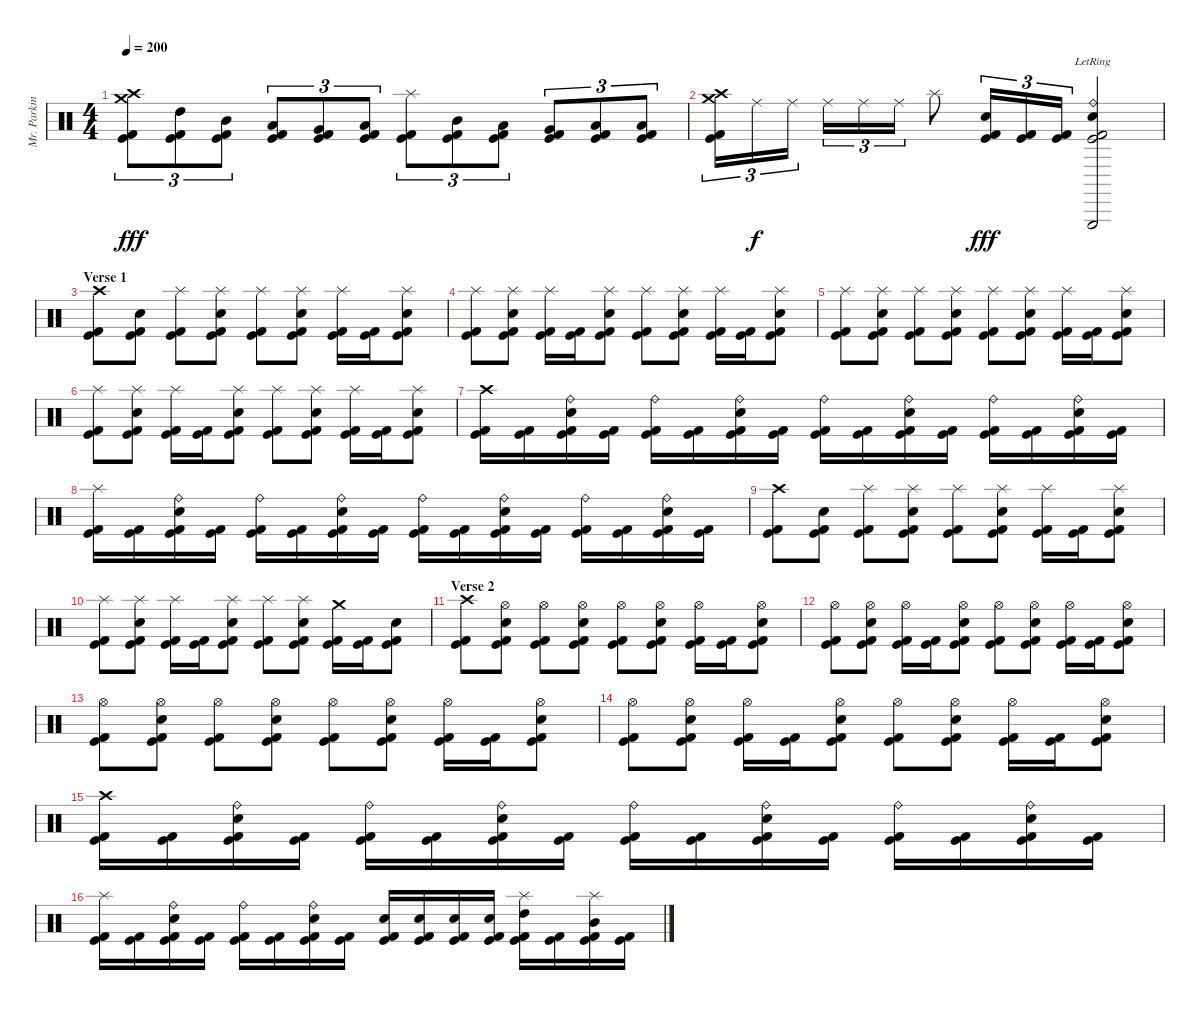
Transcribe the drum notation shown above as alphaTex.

\track ("Mr. Parkinson" "Mr. Parkin") {instrument percussion}
\staff {score}
\articulation defaults
\ts (4 4)
\tempo 200
\clef neutral
\ks c
("Crash high (hit)" "Crash medium (hit)" "Kick (hit)" "Kick (hit) 2").8{tu (3 2) dy fff} ("High Tom (hit)" "Kick (hit)" "Kick (hit) 2").8{tu (3 2)} ("Mid Tom (hit)" "Kick (hit)" "Kick (hit) 2").8{tu (3 2)} ("Low Tom (hit)" "Kick (hit)" "Kick (hit) 2").8{tu (3 2)} ("Very Low Tom (hit)" "Kick (hit)" "Kick (hit) 2").8{tu (3 2)} ("Low Floor Tom (hit)" "Kick (hit)" "Kick (hit) 2").8{tu (3 2)} ("Splash (hit)" "Kick (hit)" "Kick (hit) 2").8{tu (3 2)} ("Mid Tom (hit)" "Kick (hit)" "Kick (hit) 2").8{tu (3 2)} ("Low Tom (hit)" "Kick (hit)" "Kick (hit) 2").8{tu (3 2)} ("Very Low Tom (hit)" "Kick (hit)" "Kick (hit) 2").8{tu (3 2)} ("Low Floor Tom (hit)" "Kick (hit)" "Kick (hit) 2").8{tu (3 2)} ("Low Floor Tom (hit)" "Kick (hit)" "Kick (hit) 2").8{tu (3 2)} |
("Crash high (hit)" "Crash medium (hit)" "Kick (hit)" "Kick (hit) 2").16{tu (3 2)} "Ride (middle)".16{tu (3 2) dy f} "Ride (middle)".16{tu (3 2)} "Ride (middle)".16{tu (3 2)} "Ride (middle)".16{tu (3 2)} "Ride (middle)".16{tu (3 2)} "Splash (hit)".8 ("Snare (hit)" "Kick (hit)" "Kick (hit) 2").16{tu (3 2) dy fff} ("Kick (hit)" "Kick (hit) 2").16{tu (3 2)} ("Kick (hit)" "Kick (hit) 2").16{tu (3 2)} ("Ride (bell)"{lr} "Metronome (bell)"{lr} "Triangle (hit)"{lr} "Kick (hit)" "Kick (hit) 2").2 |
\section ("" "Verse 1")
("Crash high (hit)" "Kick (hit)" "Kick (hit) 2").8 ("Electric Snare (hit)" "Kick (hit)" "Kick (hit) 2").8 ("Splash (hit)" "Kick (hit)" "Kick (hit) 2").8 ("Splash (hit)" "Electric Snare (hit)" "Kick (hit)" "Kick (hit) 2").8 ("Splash (hit)" "Kick (hit)" "Kick (hit) 2").8 ("Splash (hit)" "Electric Snare (hit)" "Kick (hit)" "Kick (hit) 2").8 ("Splash (hit)" "Kick (hit)" "Kick (hit) 2").16 ("Kick (hit)" "Kick (hit) 2").16 ("Splash (hit)" "Electric Snare (hit)" "Kick (hit)" "Kick (hit) 2").8 |
("Splash (hit)" "Kick (hit)" "Kick (hit) 2").8 ("Splash (hit)" "Electric Snare (hit)" "Kick (hit)" "Kick (hit) 2").8 ("Splash (hit)" "Kick (hit)" "Kick (hit) 2").16 ("Kick (hit)" "Kick (hit) 2").16 ("Splash (hit)" "Electric Snare (hit)" "Kick (hit)" "Kick (hit) 2").8 ("Splash (hit)" "Kick (hit)" "Kick (hit) 2").8 ("Splash (hit)" "Electric Snare (hit)" "Kick (hit)" "Kick (hit) 2").8 ("Splash (hit)" "Kick (hit)" "Kick (hit) 2").16 ("Kick (hit)" "Kick (hit) 2").16 ("Splash (hit)" "Electric Snare (hit)" "Kick (hit)" "Kick (hit) 2").8 |
("Splash (hit)" "Kick (hit)" "Kick (hit) 2").8 ("Splash (hit)" "Electric Snare (hit)" "Kick (hit)" "Kick (hit) 2").8 ("Splash (hit)" "Kick (hit)" "Kick (hit) 2").8 ("Splash (hit)" "Electric Snare (hit)" "Kick (hit)" "Kick (hit) 2").8 ("Splash (hit)" "Kick (hit)" "Kick (hit) 2").8 ("Splash (hit)" "Electric Snare (hit)" "Kick (hit)" "Kick (hit) 2").8 ("Splash (hit)" "Kick (hit)" "Kick (hit) 2").16 ("Kick (hit)" "Kick (hit) 2").16 ("Splash (hit)" "Electric Snare (hit)" "Kick (hit)" "Kick (hit) 2").8 |
("Splash (hit)" "Kick (hit)" "Kick (hit) 2").8 ("Splash (hit)" "Electric Snare (hit)" "Kick (hit)" "Kick (hit) 2").8 ("Splash (hit)" "Kick (hit)" "Kick (hit) 2").16 ("Kick (hit)" "Kick (hit) 2").16 ("Splash (hit)" "Electric Snare (hit)" "Kick (hit)" "Kick (hit) 2").8 ("Splash (hit)" "Kick (hit)" "Kick (hit) 2").8 ("Splash (hit)" "Electric Snare (hit)" "Kick (hit)" "Kick (hit) 2").8 ("Splash (hit)" "Kick (hit)" "Kick (hit) 2").16 ("Kick (hit)" "Kick (hit) 2").16 ("Splash (hit)" "Electric Snare (hit)" "Kick (hit)" "Kick (hit) 2").8 |
("Crash high (hit)" "Kick (hit)" "Kick (hit) 2").16 ("Kick (hit)" "Kick (hit) 2").16 ("Ride (bell)" "Electric Snare (hit)" "Kick (hit)" "Kick (hit) 2").16 ("Kick (hit)" "Kick (hit) 2").16 ("Ride (bell)" "Kick (hit)" "Kick (hit) 2").16 ("Kick (hit)" "Kick (hit) 2").16 ("Ride (bell)" "Electric Snare (hit)" "Kick (hit)" "Kick (hit) 2").16 ("Kick (hit)" "Kick (hit) 2").16 ("Ride (bell)" "Kick (hit)" "Kick (hit) 2").16 ("Kick (hit)" "Kick (hit) 2").16 ("Ride (bell)" "Electric Snare (hit)" "Kick (hit)" "Kick (hit) 2").16 ("Kick (hit)" "Kick (hit) 2").16 ("Ride (bell)" "Kick (hit)" "Kick (hit) 2").16 ("Kick (hit)" "Kick (hit) 2").16 ("Ride (bell)" "Electric Snare (hit)" "Kick (hit)" "Kick (hit) 2").16 ("Kick (hit)" "Kick (hit) 2").16 |
("Splash (hit)" "Kick (hit)" "Kick (hit) 2").16 ("Kick (hit)" "Kick (hit) 2").16 ("Ride (bell)" "Electric Snare (hit)" "Kick (hit)" "Kick (hit) 2").16 ("Kick (hit)" "Kick (hit) 2").16 ("Ride (bell)" "Kick (hit)" "Kick (hit) 2").16 ("Kick (hit)" "Kick (hit) 2").16 ("Ride (bell)" "Electric Snare (hit)" "Kick (hit)" "Kick (hit) 2").16 ("Kick (hit)" "Kick (hit) 2").16 ("Ride (bell)" "Kick (hit)" "Kick (hit) 2").16 ("Kick (hit)" "Kick (hit) 2").16 ("Ride (bell)" "Electric Snare (hit)" "Kick (hit)" "Kick (hit) 2").16 ("Kick (hit)" "Kick (hit) 2").16 ("Ride (bell)" "Kick (hit)" "Kick (hit) 2").16 ("Kick (hit)" "Kick (hit) 2").16 ("Ride (bell)" "Electric Snare (hit)" "Kick (hit)" "Kick (hit) 2").16 ("Kick (hit)" "Kick (hit) 2").16 |
("Crash high (hit)" "Kick (hit)" "Kick (hit) 2").8 ("Electric Snare (hit)" "Kick (hit)" "Kick (hit) 2").8 ("Splash (hit)" "Kick (hit)" "Kick (hit) 2").8 ("Splash (hit)" "Electric Snare (hit)" "Kick (hit)" "Kick (hit) 2").8 ("Splash (hit)" "Kick (hit)" "Kick (hit) 2").8 ("Splash (hit)" "Electric Snare (hit)" "Kick (hit)" "Kick (hit) 2").8 ("Splash (hit)" "Kick (hit)" "Kick (hit) 2").16 ("Kick (hit)" "Kick (hit) 2").16 ("Splash (hit)" "Electric Snare (hit)" "Kick (hit)" "Kick (hit) 2").8 |
("Splash (hit)" "Kick (hit)" "Kick (hit) 2").8 ("Splash (hit)" "Electric Snare (hit)" "Kick (hit)" "Kick (hit) 2").8 ("Splash (hit)" "Kick (hit)" "Kick (hit) 2").16 ("Kick (hit)" "Kick (hit) 2").16 ("Splash (hit)" "Electric Snare (hit)" "Kick (hit)" "Kick (hit) 2").8 ("Splash (hit)" "Kick (hit)" "Kick (hit) 2").8 ("Splash (hit)" "Electric Snare (hit)" "Kick (hit)" "Kick (hit) 2").8 ("Crash medium (hit)" "Kick (hit)" "Kick (hit) 2").16 ("Kick (hit)" "Kick (hit) 2").16 ("Electric Snare (hit)" "Kick (hit)" "Kick (hit) 2").8 |
\section ("" "Verse 2")
("Crash high (hit)" "Kick (hit)" "Kick (hit) 2").8 ("Hi-Hat (open)" "Electric Snare (hit)" "Kick (hit)" "Kick (hit) 2").8 ("Hi-Hat (open)" "Kick (hit)" "Kick (hit) 2").8 ("Hi-Hat (open)" "Electric Snare (hit)" "Kick (hit)" "Kick (hit) 2").8 ("Hi-Hat (open)" "Kick (hit)" "Kick (hit) 2").8 ("Hi-Hat (open)" "Electric Snare (hit)" "Kick (hit)" "Kick (hit) 2").8 ("Hi-Hat (open)" "Kick (hit)" "Kick (hit) 2").16 ("Kick (hit)" "Kick (hit) 2").16 ("Hi-Hat (open)" "Electric Snare (hit)" "Kick (hit)" "Kick (hit) 2").8 |
("Hi-Hat (open)" "Kick (hit)" "Kick (hit) 2").8 ("Hi-Hat (open)" "Electric Snare (hit)" "Kick (hit)" "Kick (hit) 2").8 ("Hi-Hat (open)" "Kick (hit)" "Kick (hit) 2").16 ("Kick (hit)" "Kick (hit) 2").16 ("Hi-Hat (open)" "Electric Snare (hit)" "Kick (hit)" "Kick (hit) 2").8 ("Hi-Hat (open)" "Kick (hit)" "Kick (hit) 2").8 ("Hi-Hat (open)" "Electric Snare (hit)" "Kick (hit)" "Kick (hit) 2").8 ("Hi-Hat (open)" "Kick (hit)" "Kick (hit) 2").16 ("Kick (hit)" "Kick (hit) 2").16 ("Hi-Hat (open)" "Electric Snare (hit)" "Kick (hit)" "Kick (hit) 2").8 |
("Hi-Hat (open)" "Kick (hit)" "Kick (hit) 2").8 ("Hi-Hat (open)" "Electric Snare (hit)" "Kick (hit)" "Kick (hit) 2").8 ("Hi-Hat (open)" "Kick (hit)" "Kick (hit) 2").8 ("Hi-Hat (open)" "Electric Snare (hit)" "Kick (hit)" "Kick (hit) 2").8 ("Hi-Hat (open)" "Kick (hit)" "Kick (hit) 2").8 ("Hi-Hat (open)" "Electric Snare (hit)" "Kick (hit)" "Kick (hit) 2").8 ("Hi-Hat (open)" "Kick (hit)" "Kick (hit) 2").16 ("Kick (hit)" "Kick (hit) 2").16 ("Hi-Hat (open)" "Electric Snare (hit)" "Kick (hit)" "Kick (hit) 2").8 |
("Hi-Hat (open)" "Kick (hit)" "Kick (hit) 2").8 ("Hi-Hat (open)" "Electric Snare (hit)" "Kick (hit)" "Kick (hit) 2").8 ("Hi-Hat (open)" "Kick (hit)" "Kick (hit) 2").16 ("Kick (hit)" "Kick (hit) 2").16 ("Hi-Hat (open)" "Electric Snare (hit)" "Kick (hit)" "Kick (hit) 2").8 ("Hi-Hat (open)" "Kick (hit)" "Kick (hit) 2").8 ("Hi-Hat (open)" "Electric Snare (hit)" "Kick (hit)" "Kick (hit) 2").8 ("Hi-Hat (open)" "Kick (hit)" "Kick (hit) 2").16 ("Kick (hit)" "Kick (hit) 2").16 ("Hi-Hat (open)" "Electric Snare (hit)" "Kick (hit)" "Kick (hit) 2").8 |
("Crash high (hit)" "Kick (hit)" "Kick (hit) 2").16 ("Kick (hit)" "Kick (hit) 2").16 ("Ride (bell)" "Electric Snare (hit)" "Kick (hit)" "Kick (hit) 2").16 ("Kick (hit)" "Kick (hit) 2").16 ("Ride (bell)" "Kick (hit)" "Kick (hit) 2").16 ("Kick (hit)" "Kick (hit) 2").16 ("Ride (bell)" "Electric Snare (hit)" "Kick (hit)" "Kick (hit) 2").16 ("Kick (hit)" "Kick (hit) 2").16 ("Ride (bell)" "Kick (hit)" "Kick (hit) 2").16 ("Kick (hit)" "Kick (hit) 2").16 ("Ride (bell)" "Electric Snare (hit)" "Kick (hit)" "Kick (hit) 2").16 ("Kick (hit)" "Kick (hit) 2").16 ("Ride (bell)" "Kick (hit)" "Kick (hit) 2").16 ("Kick (hit)" "Kick (hit) 2").16 ("Ride (bell)" "Electric Snare (hit)" "Kick (hit)" "Kick (hit) 2").16 ("Kick (hit)" "Kick (hit) 2").16 |
("Splash (hit)" "Kick (hit)" "Kick (hit) 2").16 ("Kick (hit)" "Kick (hit) 2").16 ("Ride (bell)" "Electric Snare (hit)" "Kick (hit)" "Kick (hit) 2").16 ("Kick (hit)" "Kick (hit) 2").16 ("Ride (bell)" "Kick (hit)" "Kick (hit) 2").16 ("Kick (hit)" "Kick (hit) 2").16 ("Ride (bell)" "Electric Snare (hit)" "Kick (hit)" "Kick (hit) 2").16 ("Kick (hit)" "Kick (hit) 2").16 ("Electric Snare (hit)" "Kick (hit)" "Kick (hit) 2").16 ("Electric Snare (hit)" "Kick (hit)" "Kick (hit) 2").16 ("Electric Snare (hit)" "Kick (hit)" "Kick (hit) 2").16 ("Electric Snare (hit)" "Kick (hit)" "Kick (hit) 2").16 ("Splash (hit)" "High Tom (hit)" "Kick (hit)" "Kick (hit) 2").16 ("Kick (hit)" "Kick (hit) 2").16 ("Splash (hit)" "Mid Tom (hit)" "Kick (hit)" "Kick (hit) 2").16 ("Kick (hit)" "Kick (hit) 2").16
